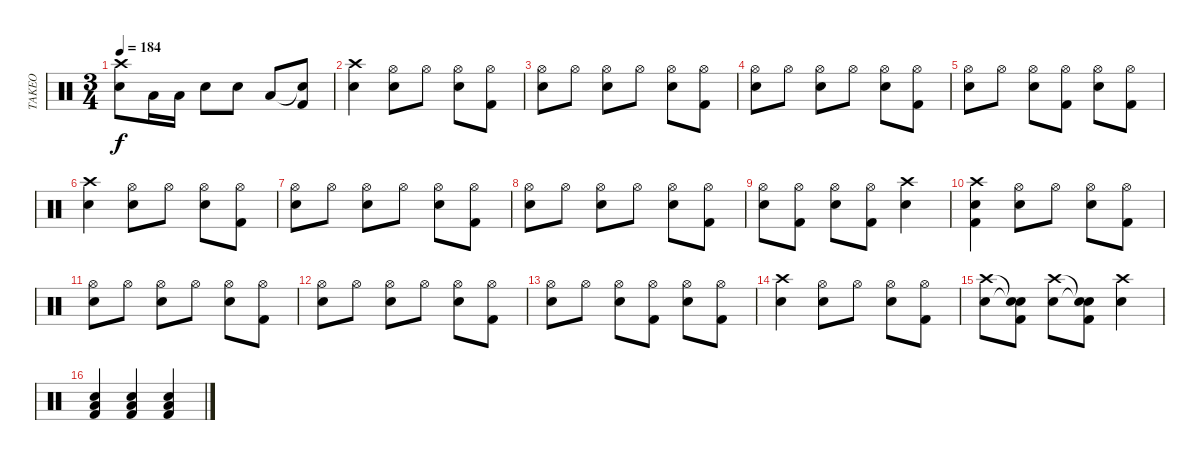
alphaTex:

\track ("TAKEO" "TAKEO") {instrument percussion}
\staff {score}
\articulation defaults
\ts (3 4)
\tempo 184
\clef neutral
\ks c
("Crash high (hit)" "Electric Snare (hit)").8{dy f} "Low Tom (hit)".16 "Low Tom (hit)".16 "Electric Snare (hit)".8 "Electric Snare (hit)".8 "Low Floor Tom (hit)".8 ("Snare (hit)"{t} "Kick (hit) 2").8 |
("Crash high (hit)" "Electric Snare (hit)").4 ("Hi-Hat (open)" "Electric Snare (hit)").8 "Hi-Hat (open)".8 ("Hi-Hat (open)" "Electric Snare (hit)").8 ("Hi-Hat (open)" "Kick (hit) 2").8 |
("Hi-Hat (open)" "Electric Snare (hit)").8 "Hi-Hat (open)".8 ("Hi-Hat (open)" "Electric Snare (hit)").8 "Hi-Hat (open)".8 ("Hi-Hat (open)" "Electric Snare (hit)").8 ("Hi-Hat (open)" "Kick (hit) 2").8 |
("Hi-Hat (open)" "Electric Snare (hit)").8 "Hi-Hat (open)".8 ("Hi-Hat (open)" "Electric Snare (hit)").8 "Hi-Hat (open)".8 ("Hi-Hat (open)" "Electric Snare (hit)").8 ("Hi-Hat (open)" "Kick (hit) 2").8 |
("Hi-Hat (open)" "Electric Snare (hit)").8 "Hi-Hat (open)".8 ("Hi-Hat (open)" "Electric Snare (hit)").8 ("Hi-Hat (open)" "Kick (hit) 2").8 ("Hi-Hat (open)" "Electric Snare (hit)").8 ("Hi-Hat (open)" "Kick (hit) 2").8 |
("Crash high (hit)" "Electric Snare (hit)").4 ("Hi-Hat (open)" "Electric Snare (hit)").8 "Hi-Hat (open)".8 ("Hi-Hat (open)" "Electric Snare (hit)").8 ("Hi-Hat (open)" "Kick (hit) 2").8 |
("Hi-Hat (open)" "Electric Snare (hit)").8 "Hi-Hat (open)".8 ("Hi-Hat (open)" "Electric Snare (hit)").8 "Hi-Hat (open)".8 ("Hi-Hat (open)" "Electric Snare (hit)").8 ("Hi-Hat (open)" "Kick (hit) 2").8 |
("Hi-Hat (open)" "Electric Snare (hit)").8 "Hi-Hat (open)".8 ("Hi-Hat (open)" "Electric Snare (hit)").8 "Hi-Hat (open)".8 ("Hi-Hat (open)" "Electric Snare (hit)").8 ("Hi-Hat (open)" "Kick (hit) 2").8 |
("Hi-Hat (open)" "Electric Snare (hit)").8 ("Hi-Hat (open)" "Kick (hit) 2").8 ("Hi-Hat (open)" "Electric Snare (hit)").8 ("Hi-Hat (open)" "Kick (hit) 2").8 ("Crash high (hit)" "Electric Snare (hit)").4 |
("Crash high (hit)" "Electric Snare (hit)" "Kick (hit) 2").4 ("Hi-Hat (open)" "Electric Snare (hit)").8 "Hi-Hat (open)".8 ("Hi-Hat (open)" "Electric Snare (hit)").8 ("Hi-Hat (open)" "Kick (hit) 2").8 |
("Hi-Hat (open)" "Electric Snare (hit)").8 "Hi-Hat (open)".8 ("Hi-Hat (open)" "Electric Snare (hit)").8 "Hi-Hat (open)".8 ("Hi-Hat (open)" "Electric Snare (hit)").8 ("Hi-Hat (open)" "Kick (hit) 2").8 |
("Hi-Hat (open)" "Electric Snare (hit)").8 "Hi-Hat (open)".8 ("Hi-Hat (open)" "Electric Snare (hit)").8 "Hi-Hat (open)".8 ("Hi-Hat (open)" "Electric Snare (hit)").8 ("Hi-Hat (open)" "Kick (hit) 2").8 |
("Hi-Hat (open)" "Electric Snare (hit)").8 "Hi-Hat (open)".8 ("Hi-Hat (open)" "Electric Snare (hit)").8 ("Hi-Hat (open)" "Kick (hit) 2").8 ("Hi-Hat (open)" "Electric Snare (hit)").8 ("Hi-Hat (open)" "Kick (hit) 2").8 |
("Crash high (hit)" "Electric Snare (hit)").4 ("Hi-Hat (open)" "Electric Snare (hit)").8 "Hi-Hat (open)".8 ("Hi-Hat (open)" "Electric Snare (hit)").8 ("Hi-Hat (open)" "Kick (hit) 2").8 |
("Crash high (hit)" "Electric Snare (hit)").8 ("Snare (hit)"{t} "Snare (hit)"{t} "Kick (hit) 2").8 ("Crash high (hit)" "Electric Snare (hit)").8 ("Snare (hit)"{t} "Snare (hit)"{t} "Kick (hit) 2").8 ("Crash high (hit)" "Electric Snare (hit)").4 |
("Electric Snare (hit)" "Low Floor Tom (hit)" "Kick (hit) 2").4 ("Electric Snare (hit)" "Low Floor Tom (hit)" "Kick (hit) 2").4 ("Electric Snare (hit)" "Low Floor Tom (hit)" "Kick (hit) 2").4
